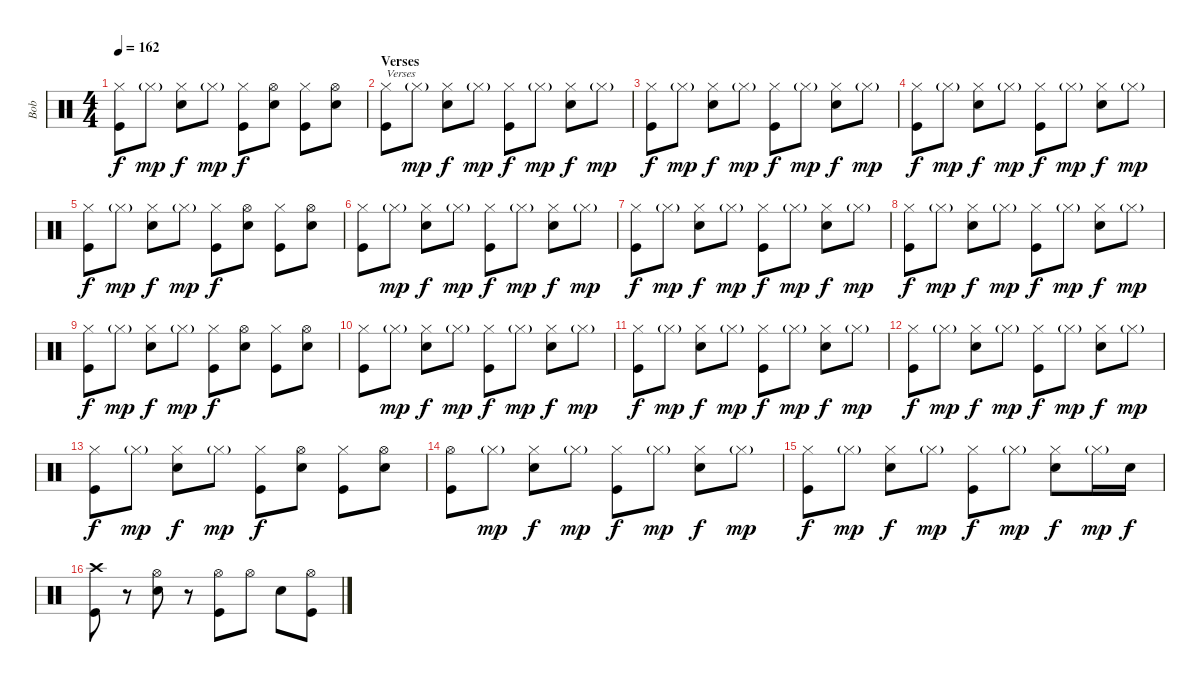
\track ("Bob" "Bob") {instrument percussion}
\staff {score}
\articulation defaults
\ts (4 4)
\tempo 162
\clef neutral
\ks c
("Hi-Hat (closed)" "Kick (hit)").8{dy f} "Hi-Hat (closed)"{g}.8{dy mp} ("Hi-Hat (closed)" "Electric Snare (hit)").8{dy f} "Hi-Hat (closed)"{g}.8{dy mp} ("Hi-Hat (closed)" "Kick (hit)").8{dy f} ("Hi-Hat (open)" "Electric Snare (hit)").8 ("Hi-Hat (closed)" "Kick (hit)").8 ("Hi-Hat (open)" "Electric Snare (hit)").8 |
\section ("" "Verses")
("Hi-Hat (closed)" "Kick (hit)").8{txt "Verses"} "Hi-Hat (closed)"{g}.8{dy mp} ("Hi-Hat (closed)" "Electric Snare (hit)").8{dy f} "Hi-Hat (closed)"{g}.8{dy mp} ("Hi-Hat (closed)" "Kick (hit)").8{dy f} "Hi-Hat (closed)"{g}.8{dy mp} ("Hi-Hat (closed)" "Electric Snare (hit)").8{dy f} "Hi-Hat (closed)"{g}.8{dy mp} |
("Hi-Hat (closed)" "Kick (hit)").8{dy f} "Hi-Hat (closed)"{g}.8{dy mp} ("Hi-Hat (closed)" "Electric Snare (hit)").8{dy f} "Hi-Hat (closed)"{g}.8{dy mp} ("Hi-Hat (closed)" "Kick (hit)").8{dy f} "Hi-Hat (closed)"{g}.8{dy mp} ("Hi-Hat (closed)" "Electric Snare (hit)").8{dy f} "Hi-Hat (closed)"{g}.8{dy mp} |
("Hi-Hat (closed)" "Kick (hit)").8{dy f} "Hi-Hat (closed)"{g}.8{dy mp} ("Hi-Hat (closed)" "Electric Snare (hit)").8{dy f} "Hi-Hat (closed)"{g}.8{dy mp} ("Hi-Hat (closed)" "Kick (hit)").8{dy f} "Hi-Hat (closed)"{g}.8{dy mp} ("Hi-Hat (closed)" "Electric Snare (hit)").8{dy f} "Hi-Hat (closed)"{g}.8{dy mp} |
("Hi-Hat (closed)" "Kick (hit)").8{dy f} "Hi-Hat (closed)"{g}.8{dy mp} ("Hi-Hat (closed)" "Electric Snare (hit)").8{dy f} "Hi-Hat (closed)"{g}.8{dy mp} ("Hi-Hat (closed)" "Kick (hit)").8{dy f} ("Hi-Hat (open)" "Electric Snare (hit)").8 ("Hi-Hat (closed)" "Kick (hit)").8 ("Hi-Hat (open)" "Electric Snare (hit)").8 |
("Hi-Hat (closed)" "Kick (hit)").8 "Hi-Hat (closed)"{g}.8{dy mp} ("Hi-Hat (closed)" "Electric Snare (hit)").8{dy f} "Hi-Hat (closed)"{g}.8{dy mp} ("Hi-Hat (closed)" "Kick (hit)").8{dy f} "Hi-Hat (closed)"{g}.8{dy mp} ("Hi-Hat (closed)" "Electric Snare (hit)").8{dy f} "Hi-Hat (closed)"{g}.8{dy mp} |
("Hi-Hat (closed)" "Kick (hit)").8{dy f} "Hi-Hat (closed)"{g}.8{dy mp} ("Hi-Hat (closed)" "Electric Snare (hit)").8{dy f} "Hi-Hat (closed)"{g}.8{dy mp} ("Hi-Hat (closed)" "Kick (hit)").8{dy f} "Hi-Hat (closed)"{g}.8{dy mp} ("Hi-Hat (closed)" "Electric Snare (hit)").8{dy f} "Hi-Hat (closed)"{g}.8{dy mp} |
("Hi-Hat (closed)" "Kick (hit)").8{dy f} "Hi-Hat (closed)"{g}.8{dy mp} ("Hi-Hat (closed)" "Electric Snare (hit)").8{dy f} "Hi-Hat (closed)"{g}.8{dy mp} ("Hi-Hat (closed)" "Kick (hit)").8{dy f} "Hi-Hat (closed)"{g}.8{dy mp} ("Hi-Hat (closed)" "Electric Snare (hit)").8{dy f} "Hi-Hat (closed)"{g}.8{dy mp} |
("Hi-Hat (closed)" "Kick (hit)").8{dy f} "Hi-Hat (closed)"{g}.8{dy mp} ("Hi-Hat (closed)" "Electric Snare (hit)").8{dy f} "Hi-Hat (closed)"{g}.8{dy mp} ("Hi-Hat (closed)" "Kick (hit)").8{dy f} ("Hi-Hat (open)" "Electric Snare (hit)").8 ("Hi-Hat (closed)" "Kick (hit)").8 ("Hi-Hat (open)" "Electric Snare (hit)").8 |
("Hi-Hat (closed)" "Kick (hit)").8 "Hi-Hat (closed)"{g}.8{dy mp} ("Hi-Hat (closed)" "Electric Snare (hit)").8{dy f} "Hi-Hat (closed)"{g}.8{dy mp} ("Hi-Hat (closed)" "Kick (hit)").8{dy f} "Hi-Hat (closed)"{g}.8{dy mp} ("Hi-Hat (closed)" "Electric Snare (hit)").8{dy f} "Hi-Hat (closed)"{g}.8{dy mp} |
("Hi-Hat (closed)" "Kick (hit)").8{dy f} "Hi-Hat (closed)"{g}.8{dy mp} ("Hi-Hat (closed)" "Electric Snare (hit)").8{dy f} "Hi-Hat (closed)"{g}.8{dy mp} ("Hi-Hat (closed)" "Kick (hit)").8{dy f} "Hi-Hat (closed)"{g}.8{dy mp} ("Hi-Hat (closed)" "Electric Snare (hit)").8{dy f} "Hi-Hat (closed)"{g}.8{dy mp} |
("Hi-Hat (closed)" "Kick (hit)").8{dy f} "Hi-Hat (closed)"{g}.8{dy mp} ("Hi-Hat (closed)" "Electric Snare (hit)").8{dy f} "Hi-Hat (closed)"{g}.8{dy mp} ("Hi-Hat (closed)" "Kick (hit)").8{dy f} "Hi-Hat (closed)"{g}.8{dy mp} ("Hi-Hat (closed)" "Electric Snare (hit)").8{dy f} "Hi-Hat (closed)"{g}.8{dy mp} |
("Hi-Hat (closed)" "Kick (hit)").8{dy f} "Hi-Hat (closed)"{g}.8{dy mp} ("Hi-Hat (closed)" "Electric Snare (hit)").8{dy f} "Hi-Hat (closed)"{g}.8{dy mp} ("Hi-Hat (closed)" "Kick (hit)").8{dy f} ("Hi-Hat (open)" "Electric Snare (hit)").8 ("Hi-Hat (closed)" "Kick (hit)").8 ("Hi-Hat (open)" "Electric Snare (hit)").8 |
("Hi-Hat (open)" "Kick (hit)").8 "Hi-Hat (closed)"{g}.8{dy mp} ("Hi-Hat (closed)" "Electric Snare (hit)").8{dy f} "Hi-Hat (closed)"{g}.8{dy mp} ("Hi-Hat (closed)" "Kick (hit)").8{dy f} "Hi-Hat (closed)"{g}.8{dy mp} ("Hi-Hat (closed)" "Electric Snare (hit)").8{dy f} "Hi-Hat (closed)"{g}.8{dy mp} |
("Hi-Hat (closed)" "Kick (hit)").8{dy f} "Hi-Hat (closed)"{g}.8{dy mp} ("Hi-Hat (closed)" "Electric Snare (hit)").8{dy f} "Hi-Hat (closed)"{g}.8{dy mp} ("Hi-Hat (closed)" "Kick (hit)").8{dy f} "Hi-Hat (closed)"{g}.8{dy mp} ("Hi-Hat (closed)" "Electric Snare (hit)").8{dy f} "Hi-Hat (closed)"{g}.16{dy mp} "Electric Snare (hit)".16{dy f} |
("Crash high (hit)" "Kick (hit)").8 r.8 ("Hi-Hat (open)" "Electric Snare (hit)").8 r.8 ("Hi-Hat (open)" "Kick (hit)").8 "Hi-Hat (open)".8 "Electric Snare (hit)".8 ("Hi-Hat (open)" "Kick (hit)").8
